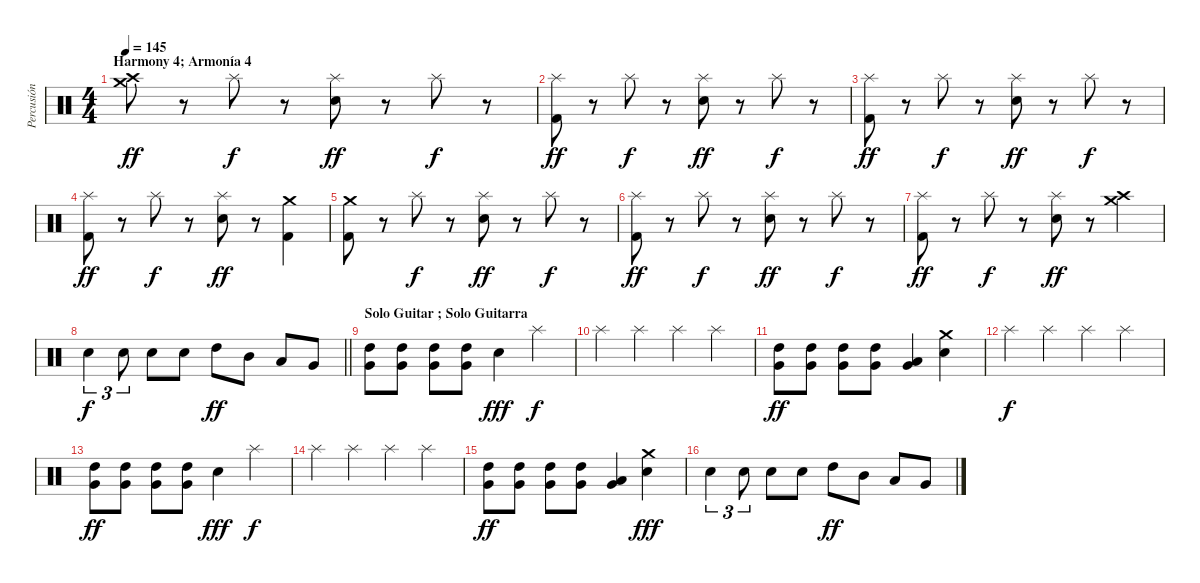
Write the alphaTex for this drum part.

\track ("Percusión" "Percusión") {instrument percussion}
\staff {score}
\articulation defaults
\ts (4 4)
\section ("" "Harmony 4; Armonía 4")
\tempo 145
\clef neutral
\ks c
("Crash medium (hit)" "Crash high (hit)").8{dy ff} r.8 "Splash (hit)".8{dy f} r.8 ("Splash (hit)" "Electric Snare (hit)").8{dy ff} r.8 "Splash (hit)".8{dy f} r.8 |
("Splash (hit)" "Kick (hit) 2").8{dy ff} r.8 "Splash (hit)".8{dy f} r.8 ("Splash (hit)" "Electric Snare (hit)").8{dy ff} r.8 "Splash (hit)".8{dy f} r.8 |
("Splash (hit)" "Kick (hit) 2").8{dy ff} r.8 "Splash (hit)".8{dy f} r.8 ("Splash (hit)" "Electric Snare (hit)").8{dy ff} r.8 "Splash (hit)".8{dy f} r.8 |
("Splash (hit)" "Kick (hit) 2").8{dy ff} r.8 "Splash (hit)".8{dy f} r.8 ("Splash (hit)" "Electric Snare (hit)").8{dy ff} r.8 ("Crash medium (hit)" "Kick (hit) 2").4 |
("Crash medium (hit)" "Kick (hit) 2").8 r.8 "Splash (hit)".8{dy f} r.8 ("Splash (hit)" "Electric Snare (hit)").8{dy ff} r.8 "Splash (hit)".8{dy f} r.8 |
("Splash (hit)" "Kick (hit) 2").8{dy ff} r.8 "Splash (hit)".8{dy f} r.8 ("Splash (hit)" "Electric Snare (hit)").8{dy ff} r.8 "Splash (hit)".8{dy f} r.8 |
("Splash (hit)" "Kick (hit) 2").8{dy ff} r.8 "Splash (hit)".8{dy f} r.8 ("Splash (hit)" "Electric Snare (hit)").8{dy ff} r.8 ("Crash high (hit)" "Crash medium (hit)").4 |
\barLineRight lightlight "Electric Snare (hit)".4{tu (3 2) dy f} "Electric Snare (hit)".8{tu (3 2)} "Electric Snare (hit)".8 "Electric Snare (hit)".8 "High Tom (hit)".8{dy ff} "Mid Tom (hit)".8 "Low Tom (hit)".8 "Very Low Tom (hit)".8
|
\section ("" "Solo Guitar ; Solo Guitarra")
("High Tom (hit)" "Very Low Tom (hit)").8 ("High Tom (hit)" "Very Low Tom (hit)").8 ("High Tom (hit)" "Very Low Tom (hit)").8 ("High Tom (hit)" "Very Low Tom (hit)").8 "Electric Snare (hit)".4{dy fff} "Splash (hit)".4{dy f} |
"Splash (hit)".4 "Splash (hit)".4 "Splash (hit)".4 "Splash (hit)".4 |
("High Tom (hit)" "Very Low Tom (hit)").8{dy ff} ("High Tom (hit)" "Very Low Tom (hit)").8 ("High Tom (hit)" "Very Low Tom (hit)").8 ("High Tom (hit)" "Very Low Tom (hit)").8 ("Low Floor Tom (hit)" "Very Low Tom (hit)").4 ("Crash medium (hit)" "Electric Snare (hit)").4 |
"Splash (hit)".4{dy f} "Splash (hit)".4 "Splash (hit)".4 "Splash (hit)".4 |
("High Tom (hit)" "Very Low Tom (hit)").8{dy ff} ("High Tom (hit)" "Very Low Tom (hit)").8 ("High Tom (hit)" "Very Low Tom (hit)").8 ("High Tom (hit)" "Very Low Tom (hit)").8 "Electric Snare (hit)".4{dy fff} "Splash (hit)".4{dy f} |
"Splash (hit)".4 "Splash (hit)".4 "Splash (hit)".4 "Splash (hit)".4 |
("High Tom (hit)" "Very Low Tom (hit)").8{dy ff} ("High Tom (hit)" "Very Low Tom (hit)").8 ("High Tom (hit)" "Very Low Tom (hit)").8 ("High Tom (hit)" "Very Low Tom (hit)").8 ("Low Floor Tom (hit)" "Very Low Tom (hit)").4 ("Crash medium (hit)" "Electric Snare (hit)").4{dy fff} |
"Electric Snare (hit)".4{tu (3 2)} "Electric Snare (hit)".8{tu (3 2)} "Electric Snare (hit)".8 "Electric Snare (hit)".8 "High Tom (hit)".8{dy ff} "Mid Tom (hit)".8 "Low Tom (hit)".8 "Very Low Tom (hit)".8
